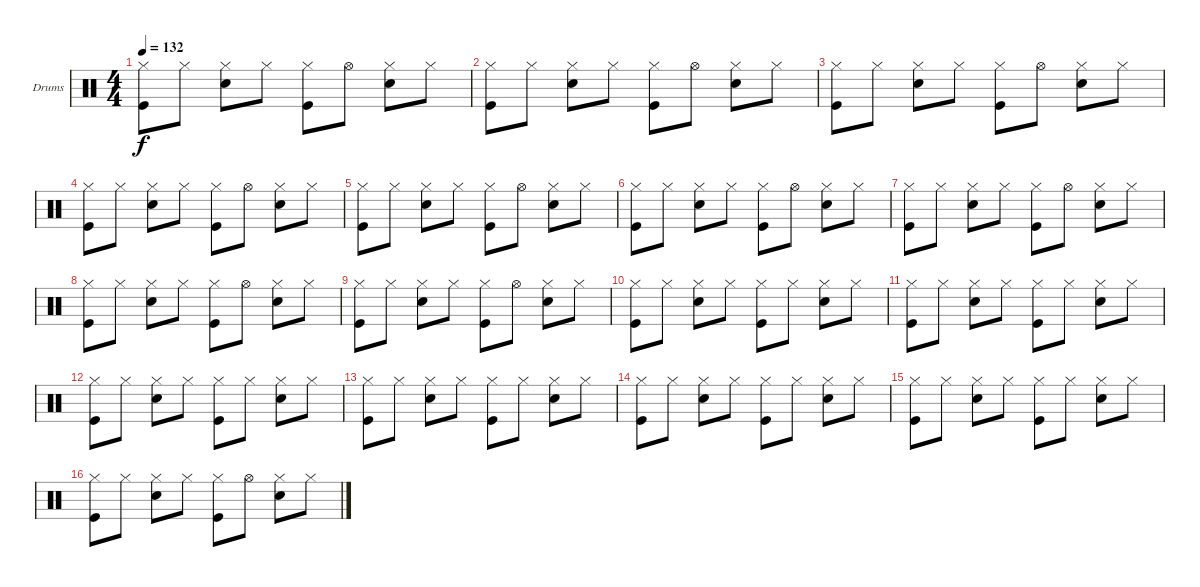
\defaultSystemsLayout 4
\bracketExtendMode groupsimilarinstruments
\firstSystemTrackNameOrientation horizontal
\otherSystemsTrackNameOrientation horizontal
\track ("Fab Moretti" "Drums") {instrument percussion}
\staff {score}
\articulation defaults
\ts (4 4)
\tempo 132
\clef neutral
\ks c
("Hi-Hat (closed)" "Kick (hit)").8{dy f} "Hi-Hat (closed)".8 ("Hi-Hat (closed)" "Snare (hit) 2").8 "Hi-Hat (closed)".8 ("Hi-Hat (closed)" "Kick (hit)").8 "Hi-Hat (open)".8 ("Hi-Hat (closed)" "Snare (hit) 2").8 "Hi-Hat (closed)".8 |
("Hi-Hat (closed)" "Kick (hit)").8 "Hi-Hat (closed)".8 ("Hi-Hat (closed)" "Snare (hit) 2").8 "Hi-Hat (closed)".8 ("Hi-Hat (closed)" "Kick (hit)").8 "Hi-Hat (open)".8 ("Hi-Hat (closed)" "Snare (hit) 2").8 "Hi-Hat (closed)".8 |
("Hi-Hat (closed)" "Kick (hit)").8 "Hi-Hat (closed)".8 ("Hi-Hat (closed)" "Snare (hit) 2").8 "Hi-Hat (closed)".8 ("Hi-Hat (closed)" "Kick (hit)").8 "Hi-Hat (open)".8 ("Hi-Hat (closed)" "Snare (hit) 2").8 "Hi-Hat (closed)".8 |
("Hi-Hat (closed)" "Kick (hit)").8 "Hi-Hat (closed)".8 ("Hi-Hat (closed)" "Snare (hit) 2").8 "Hi-Hat (closed)".8 ("Hi-Hat (closed)" "Kick (hit)").8 "Hi-Hat (open)".8 ("Hi-Hat (closed)" "Snare (hit) 2").8 "Hi-Hat (closed)".8 |
("Hi-Hat (closed)" "Kick (hit)").8 "Hi-Hat (closed)".8 ("Hi-Hat (closed)" "Snare (hit) 2").8 "Hi-Hat (closed)".8 ("Hi-Hat (closed)" "Kick (hit)").8 "Hi-Hat (open)".8 ("Hi-Hat (closed)" "Snare (hit) 2").8 "Hi-Hat (closed)".8 |
("Hi-Hat (closed)" "Kick (hit)").8 "Hi-Hat (closed)".8 ("Hi-Hat (closed)" "Snare (hit) 2").8 "Hi-Hat (closed)".8 ("Hi-Hat (closed)" "Kick (hit)").8 "Hi-Hat (open)".8 ("Hi-Hat (closed)" "Snare (hit) 2").8 "Hi-Hat (closed)".8 |
("Hi-Hat (closed)" "Kick (hit)").8 "Hi-Hat (closed)".8 ("Hi-Hat (closed)" "Snare (hit) 2").8 "Hi-Hat (closed)".8 ("Hi-Hat (closed)" "Kick (hit)").8 "Hi-Hat (open)".8 ("Hi-Hat (closed)" "Snare (hit) 2").8 "Hi-Hat (closed)".8 |
("Hi-Hat (closed)" "Kick (hit)").8 "Hi-Hat (closed)".8 ("Hi-Hat (closed)" "Snare (hit) 2").8 "Hi-Hat (closed)".8 ("Hi-Hat (closed)" "Kick (hit)").8 "Hi-Hat (open)".8 ("Hi-Hat (closed)" "Snare (hit) 2").8 "Hi-Hat (closed)".8 |
("Hi-Hat (closed)" "Kick (hit)").8 "Hi-Hat (closed)".8 ("Hi-Hat (closed)" "Snare (hit) 2").8 "Hi-Hat (closed)".8 ("Hi-Hat (closed)" "Kick (hit)").8 "Hi-Hat (open)".8 ("Hi-Hat (closed)" "Snare (hit) 2").8 "Hi-Hat (closed)".8 |
("Hi-Hat (closed)" "Kick (hit)").8 "Hi-Hat (closed)".8 ("Hi-Hat (closed)" "Snare (hit) 2").8 "Hi-Hat (closed)".8 ("Hi-Hat (closed)" "Kick (hit)").8 "Hi-Hat (closed)".8 ("Hi-Hat (closed)" "Snare (hit) 2").8 "Hi-Hat (closed)".8 |
("Hi-Hat (closed)" "Kick (hit)").8 "Hi-Hat (closed)".8 ("Hi-Hat (closed)" "Snare (hit) 2").8 "Hi-Hat (closed)".8 ("Hi-Hat (closed)" "Kick (hit)").8 "Hi-Hat (closed)".8 ("Hi-Hat (closed)" "Snare (hit) 2").8 "Hi-Hat (closed)".8 |
("Hi-Hat (closed)" "Kick (hit)").8 "Hi-Hat (closed)".8 ("Hi-Hat (closed)" "Snare (hit) 2").8 "Hi-Hat (closed)".8 ("Hi-Hat (closed)" "Kick (hit)").8 "Hi-Hat (closed)".8 ("Hi-Hat (closed)" "Snare (hit) 2").8 "Hi-Hat (closed)".8 |
("Hi-Hat (closed)" "Kick (hit)").8 "Hi-Hat (closed)".8 ("Hi-Hat (closed)" "Snare (hit) 2").8 "Hi-Hat (closed)".8 ("Hi-Hat (closed)" "Kick (hit)").8 "Hi-Hat (closed)".8 ("Hi-Hat (closed)" "Snare (hit) 2").8 "Hi-Hat (closed)".8 |
("Hi-Hat (closed)" "Kick (hit)").8 "Hi-Hat (closed)".8 ("Hi-Hat (closed)" "Snare (hit) 2").8 "Hi-Hat (closed)".8 ("Hi-Hat (closed)" "Kick (hit)").8 "Hi-Hat (closed)".8 ("Hi-Hat (closed)" "Snare (hit) 2").8 "Hi-Hat (closed)".8 |
("Hi-Hat (closed)" "Kick (hit)").8 "Hi-Hat (closed)".8 ("Hi-Hat (closed)" "Snare (hit) 2").8 "Hi-Hat (closed)".8 ("Hi-Hat (closed)" "Kick (hit)").8 "Hi-Hat (closed)".8 ("Hi-Hat (closed)" "Snare (hit) 2").8 "Hi-Hat (closed)".8 |
("Hi-Hat (closed)" "Kick (hit)").8 "Hi-Hat (closed)".8 ("Hi-Hat (closed)" "Snare (hit) 2").8 "Hi-Hat (closed)".8 ("Hi-Hat (closed)" "Kick (hit)").8 "Hi-Hat (open)".8 ("Hi-Hat (closed)" "Snare (hit) 2").8 "Hi-Hat (closed)".8
